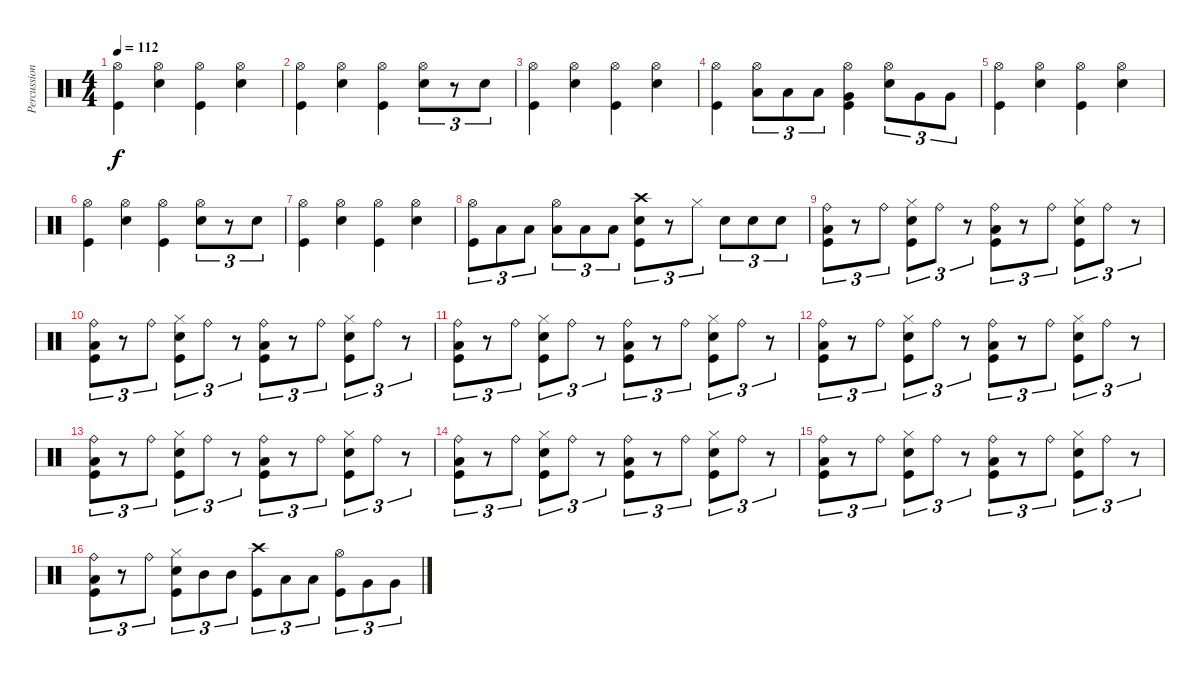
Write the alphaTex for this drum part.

\track ("Percussion" "Percussion") {instrument percussion}
\staff {score}
\articulation defaults
\ts (4 4)
\tempo 112
\clef neutral
\ks c
("Hi-Hat (open)" "Kick (hit)").4{dy f} ("Hi-Hat (open)" "Snare (hit) 2").4 ("Hi-Hat (open)" "Kick (hit)").4 ("Hi-Hat (open)" "Snare (hit) 2").4 |
("Hi-Hat (open)" "Kick (hit)").4 ("Hi-Hat (open)" "Snare (hit) 2").4 ("Hi-Hat (open)" "Kick (hit)").4 ("Hi-Hat (open)" "Snare (hit) 2").8{tu (3 2)} r.8{tu (3 2)} "Snare (hit) 2".8{tu (3 2)} |
("Hi-Hat (open)" "Kick (hit)").4 ("Hi-Hat (open)" "Snare (hit) 2").4 ("Hi-Hat (open)" "Kick (hit)").4 ("Hi-Hat (open)" "Snare (hit) 2").4 |
("Hi-Hat (open)" "Kick (hit)").4 ("Hi-Hat (open)" "Low Tom (hit)").8{tu (3 2)} "Low Tom (hit)".8{tu (3 2)} "Low Tom (hit)".8{tu (3 2)} ("Hi-Hat (open)" "Very Low Tom (hit)" "Kick (hit)").4 ("Hi-Hat (open)" "Snare (hit) 2").8{tu (3 2)} "Very Low Tom (hit)".8{tu (3 2)} "Very Low Tom (hit)".8{tu (3 2)} |
("Hi-Hat (open)" "Kick (hit)").4 ("Hi-Hat (open)" "Snare (hit) 2").4 ("Hi-Hat (open)" "Kick (hit)").4 ("Hi-Hat (open)" "Snare (hit) 2").4 |
("Hi-Hat (open)" "Kick (hit)").4 ("Hi-Hat (open)" "Snare (hit) 2").4 ("Hi-Hat (open)" "Kick (hit)").4 ("Hi-Hat (open)" "Snare (hit) 2").8{tu (3 2)} r.8{tu (3 2)} "Snare (hit) 2".8{tu (3 2)} |
("Hi-Hat (open)" "Kick (hit)").4 ("Hi-Hat (open)" "Snare (hit) 2").4 ("Hi-Hat (open)" "Kick (hit)").4 ("Hi-Hat (open)" "Snare (hit) 2").4 |
("Hi-Hat (open)" "Kick (hit)").8{tu (3 2)} "Low Tom (hit)".8{tu (3 2)} "Low Tom (hit)".8{tu (3 2)} ("Hi-Hat (open)" "Low Tom (hit)").8{tu (3 2)} "Low Tom (hit)".8{tu (3 2)} "Low Tom (hit)".8{tu (3 2)} ("Crash high (hit)" "Snare (hit) 2" "Kick (hit)").8{tu (3 2)} r.8{tu (3 2)} "Hi-Hat (closed)".8{tu (3 2)} "Snare (hit) 2".8{tu (3 2)} "Snare (hit) 2".8{tu (3 2)} "Snare (hit) 2".8{tu (3 2)} |
("Ride (bell)" "Low Tom (hit)" "Kick (hit)").8{tu (3 2)} r.8{tu (3 2)} "Ride (bell)".8{tu (3 2)} ("Hi-Hat (closed)" "Snare (hit) 2" "Kick (hit)").8{tu (3 2)} "Ride (bell)".8{tu (3 2)} r.8{tu (3 2)} ("Ride (bell)" "Low Tom (hit)" "Kick (hit)").8{tu (3 2)} r.8{tu (3 2)} "Ride (bell)".8{tu (3 2)} ("Hi-Hat (closed)" "Snare (hit) 2" "Kick (hit)").8{tu (3 2)} "Ride (bell)".8{tu (3 2)} r.8{tu (3 2)} |
("Ride (bell)" "Low Tom (hit)" "Kick (hit)").8{tu (3 2)} r.8{tu (3 2)} "Ride (bell)".8{tu (3 2)} ("Hi-Hat (closed)" "Snare (hit) 2" "Kick (hit)").8{tu (3 2)} "Ride (bell)".8{tu (3 2)} r.8{tu (3 2)} ("Ride (bell)" "Low Tom (hit)" "Kick (hit)").8{tu (3 2)} r.8{tu (3 2)} "Ride (bell)".8{tu (3 2)} ("Hi-Hat (closed)" "Snare (hit) 2" "Kick (hit)").8{tu (3 2)} "Ride (bell)".8{tu (3 2)} r.8{tu (3 2)} |
("Ride (bell)" "Low Tom (hit)" "Kick (hit)").8{tu (3 2)} r.8{tu (3 2)} "Ride (bell)".8{tu (3 2)} ("Hi-Hat (closed)" "Snare (hit) 2" "Kick (hit)").8{tu (3 2)} "Ride (bell)".8{tu (3 2)} r.8{tu (3 2)} ("Ride (bell)" "Low Tom (hit)" "Kick (hit)").8{tu (3 2)} r.8{tu (3 2)} "Ride (bell)".8{tu (3 2)} ("Hi-Hat (closed)" "Snare (hit) 2" "Kick (hit)").8{tu (3 2)} "Ride (bell)".8{tu (3 2)} r.8{tu (3 2)} |
("Ride (bell)" "Low Tom (hit)" "Kick (hit)").8{tu (3 2)} r.8{tu (3 2)} "Ride (bell)".8{tu (3 2)} ("Hi-Hat (closed)" "Snare (hit) 2" "Kick (hit)").8{tu (3 2)} "Ride (bell)".8{tu (3 2)} r.8{tu (3 2)} ("Ride (bell)" "Low Tom (hit)" "Kick (hit)").8{tu (3 2)} r.8{tu (3 2)} "Ride (bell)".8{tu (3 2)} ("Hi-Hat (closed)" "Snare (hit) 2" "Kick (hit)").8{tu (3 2)} "Ride (bell)".8{tu (3 2)} r.8{tu (3 2)} |
("Ride (bell)" "Low Tom (hit)" "Kick (hit)").8{tu (3 2)} r.8{tu (3 2)} "Ride (bell)".8{tu (3 2)} ("Hi-Hat (closed)" "Snare (hit) 2" "Kick (hit)").8{tu (3 2)} "Ride (bell)".8{tu (3 2)} r.8{tu (3 2)} ("Ride (bell)" "Low Tom (hit)" "Kick (hit)").8{tu (3 2)} r.8{tu (3 2)} "Ride (bell)".8{tu (3 2)} ("Hi-Hat (closed)" "Snare (hit) 2" "Kick (hit)").8{tu (3 2)} "Ride (bell)".8{tu (3 2)} r.8{tu (3 2)} |
("Ride (bell)" "Low Tom (hit)" "Kick (hit)").8{tu (3 2)} r.8{tu (3 2)} "Ride (bell)".8{tu (3 2)} ("Hi-Hat (closed)" "Snare (hit) 2" "Kick (hit)").8{tu (3 2)} "Ride (bell)".8{tu (3 2)} r.8{tu (3 2)} ("Ride (bell)" "Low Tom (hit)" "Kick (hit)").8{tu (3 2)} r.8{tu (3 2)} "Ride (bell)".8{tu (3 2)} ("Hi-Hat (closed)" "Snare (hit) 2" "Kick (hit)").8{tu (3 2)} "Ride (bell)".8{tu (3 2)} r.8{tu (3 2)} |
("Ride (bell)" "Low Tom (hit)" "Kick (hit)").8{tu (3 2)} r.8{tu (3 2)} "Ride (bell)".8{tu (3 2)} ("Hi-Hat (closed)" "Snare (hit) 2" "Kick (hit)").8{tu (3 2)} "Ride (bell)".8{tu (3 2)} r.8{tu (3 2)} ("Ride (bell)" "Low Tom (hit)" "Kick (hit)").8{tu (3 2)} r.8{tu (3 2)} "Ride (bell)".8{tu (3 2)} ("Hi-Hat (closed)" "Snare (hit) 2" "Kick (hit)").8{tu (3 2)} "Ride (bell)".8{tu (3 2)} r.8{tu (3 2)} |
("Ride (bell)" "Low Tom (hit)" "Kick (hit)").8{tu (3 2)} r.8{tu (3 2)} "Ride (bell)".8{tu (3 2)} ("Hi-Hat (closed)" "Snare (hit) 2" "Kick (hit)").8{tu (3 2)} "Mid Tom (hit)".8{tu (3 2)} "Mid Tom (hit)".8{tu (3 2)} ("Crash high (hit)" "Kick (hit)").8{tu (3 2)} "Low Tom (hit)".8{tu (3 2)} "Low Tom (hit)".8{tu (3 2)} ("Hi-Hat (open)" "Kick (hit)").8{tu (3 2)} "Very Low Tom (hit)".8{tu (3 2)} "Very Low Tom (hit)".8{tu (3 2)}
